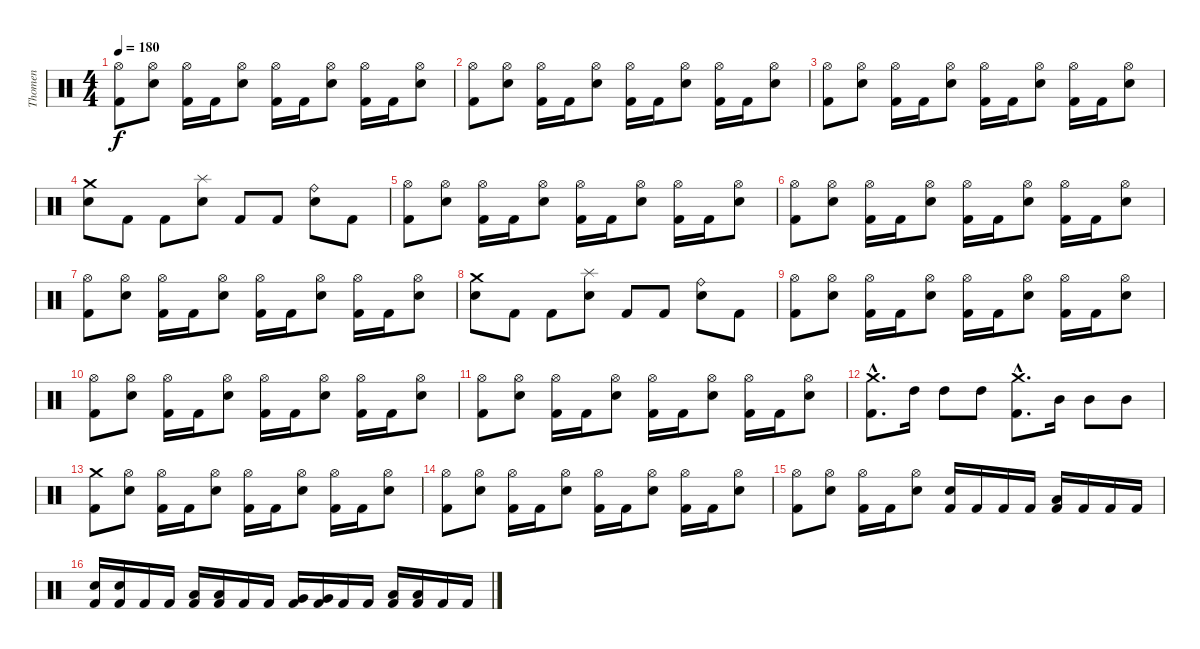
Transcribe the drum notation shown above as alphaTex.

\track ("Thomen" "Thomen") {instrument percussion}
\staff {score}
\articulation defaults
\ts (4 4)
\tempo 180
\clef neutral
\ks c
("Hi-Hat (open)" "Kick (hit) 2").8{dy f} ("Hi-Hat (open)" "Electric Snare (hit)").8 ("Hi-Hat (open)" "Kick (hit) 2").16 "Kick (hit) 2".16 ("Hi-Hat (open)" "Electric Snare (hit)").8 ("Hi-Hat (open)" "Kick (hit) 2").16 "Kick (hit) 2".16 ("Hi-Hat (open)" "Electric Snare (hit)").8 ("Hi-Hat (open)" "Kick (hit) 2").16 "Kick (hit) 2".16 ("Hi-Hat (open)" "Electric Snare (hit)").8 |
("Hi-Hat (open)" "Kick (hit) 2").8 ("Hi-Hat (open)" "Electric Snare (hit)").8 ("Hi-Hat (open)" "Kick (hit) 2").16 "Kick (hit) 2".16 ("Hi-Hat (open)" "Electric Snare (hit)").8 ("Hi-Hat (open)" "Kick (hit) 2").16 "Kick (hit) 2".16 ("Hi-Hat (open)" "Electric Snare (hit)").8 ("Hi-Hat (open)" "Kick (hit) 2").16 "Kick (hit) 2".16 ("Hi-Hat (open)" "Electric Snare (hit)").8 |
("Hi-Hat (open)" "Kick (hit) 2").8 ("Hi-Hat (open)" "Electric Snare (hit)").8 ("Hi-Hat (open)" "Kick (hit) 2").16 "Kick (hit) 2".16 ("Hi-Hat (open)" "Electric Snare (hit)").8 ("Hi-Hat (open)" "Kick (hit) 2").16 "Kick (hit) 2".16 ("Hi-Hat (open)" "Electric Snare (hit)").8 ("Hi-Hat (open)" "Kick (hit) 2").16 "Kick (hit) 2".16 ("Hi-Hat (open)" "Electric Snare (hit)").8 |
("Crash medium (hit)" "Electric Snare (hit)").8 "Kick (hit) 2".8 "Kick (hit) 2".8 ("Splash (hit)" "Electric Snare (hit)").8 "Kick (hit) 2".8 "Kick (hit) 2".8 ("Ride (bell)" "Electric Snare (hit)").8 "Kick (hit) 2".8 |
("Hi-Hat (open)" "Kick (hit) 2").8 ("Hi-Hat (open)" "Electric Snare (hit)").8 ("Hi-Hat (open)" "Kick (hit) 2").16 "Kick (hit) 2".16 ("Hi-Hat (open)" "Electric Snare (hit)").8 ("Hi-Hat (open)" "Kick (hit) 2").16 "Kick (hit) 2".16 ("Hi-Hat (open)" "Electric Snare (hit)").8 ("Hi-Hat (open)" "Kick (hit) 2").16 "Kick (hit) 2".16 ("Hi-Hat (open)" "Electric Snare (hit)").8 |
("Hi-Hat (open)" "Kick (hit) 2").8 ("Hi-Hat (open)" "Electric Snare (hit)").8 ("Hi-Hat (open)" "Kick (hit) 2").16 "Kick (hit) 2".16 ("Hi-Hat (open)" "Electric Snare (hit)").8 ("Hi-Hat (open)" "Kick (hit) 2").16 "Kick (hit) 2".16 ("Hi-Hat (open)" "Electric Snare (hit)").8 ("Hi-Hat (open)" "Kick (hit) 2").16 "Kick (hit) 2".16 ("Hi-Hat (open)" "Electric Snare (hit)").8 |
("Hi-Hat (open)" "Kick (hit) 2").8 ("Hi-Hat (open)" "Electric Snare (hit)").8 ("Hi-Hat (open)" "Kick (hit) 2").16 "Kick (hit) 2".16 ("Hi-Hat (open)" "Electric Snare (hit)").8 ("Hi-Hat (open)" "Kick (hit) 2").16 "Kick (hit) 2".16 ("Hi-Hat (open)" "Electric Snare (hit)").8 ("Hi-Hat (open)" "Kick (hit) 2").16 "Kick (hit) 2".16 ("Hi-Hat (open)" "Electric Snare (hit)").8 |
("Crash medium (hit)" "Electric Snare (hit)").8 "Kick (hit) 2".8 "Kick (hit) 2".8 ("Splash (hit)" "Electric Snare (hit)").8 "Kick (hit) 2".8 "Kick (hit) 2".8 ("Ride (bell)" "Electric Snare (hit)").8 "Kick (hit) 2".8 |
("Hi-Hat (open)" "Kick (hit) 2").8 ("Hi-Hat (open)" "Electric Snare (hit)").8 ("Hi-Hat (open)" "Kick (hit) 2").16 "Kick (hit) 2".16 ("Hi-Hat (open)" "Electric Snare (hit)").8 ("Hi-Hat (open)" "Kick (hit) 2").16 "Kick (hit) 2".16 ("Hi-Hat (open)" "Electric Snare (hit)").8 ("Hi-Hat (open)" "Kick (hit) 2").16 "Kick (hit) 2".16 ("Hi-Hat (open)" "Electric Snare (hit)").8 |
("Hi-Hat (open)" "Kick (hit) 2").8 ("Hi-Hat (open)" "Electric Snare (hit)").8 ("Hi-Hat (open)" "Kick (hit) 2").16 "Kick (hit) 2".16 ("Hi-Hat (open)" "Electric Snare (hit)").8 ("Hi-Hat (open)" "Kick (hit) 2").16 "Kick (hit) 2".16 ("Hi-Hat (open)" "Electric Snare (hit)").8 ("Hi-Hat (open)" "Kick (hit) 2").16 "Kick (hit) 2".16 ("Hi-Hat (open)" "Electric Snare (hit)").8 |
("Hi-Hat (open)" "Kick (hit) 2").8 ("Hi-Hat (open)" "Electric Snare (hit)").8 ("Hi-Hat (open)" "Kick (hit) 2").16 "Kick (hit) 2".16 ("Hi-Hat (open)" "Electric Snare (hit)").8 ("Hi-Hat (open)" "Kick (hit) 2").16 "Kick (hit) 2".16 ("Hi-Hat (open)" "Electric Snare (hit)").8 ("Hi-Hat (open)" "Kick (hit) 2").16 "Kick (hit) 2".16 ("Hi-Hat (open)" "Electric Snare (hit)").8 |
("Crash medium (hit)"{hac} "Kick (hit) 2"{hac}).8{d} "High Tom (hit)".16 "High Tom (hit)".8 "High Tom (hit)".8 ("Crash medium (hit)"{hac} "Kick (hit) 2"{hac}).8{d} "Mid Tom (hit)".16 "Mid Tom (hit)".8 "Mid Tom (hit)".8 |
("Crash medium (hit)" "Kick (hit) 2").8 ("Hi-Hat (open)" "Electric Snare (hit)").8 ("Hi-Hat (open)" "Kick (hit) 2").16 "Kick (hit) 2".16 ("Hi-Hat (open)" "Electric Snare (hit)").8 ("Hi-Hat (open)" "Kick (hit) 2").16 "Kick (hit) 2".16 ("Hi-Hat (open)" "Electric Snare (hit)").8 ("Hi-Hat (open)" "Kick (hit) 2").16 "Kick (hit) 2".16 ("Hi-Hat (open)" "Electric Snare (hit)").8 |
("Hi-Hat (open)" "Kick (hit) 2").8 ("Hi-Hat (open)" "Electric Snare (hit)").8 ("Hi-Hat (open)" "Kick (hit) 2").16 "Kick (hit) 2".16 ("Hi-Hat (open)" "Electric Snare (hit)").8 ("Hi-Hat (open)" "Kick (hit) 2").16 "Kick (hit) 2".16 ("Hi-Hat (open)" "Electric Snare (hit)").8 ("Hi-Hat (open)" "Kick (hit) 2").16 "Kick (hit) 2".16 ("Hi-Hat (open)" "Electric Snare (hit)").8 |
("Hi-Hat (open)" "Kick (hit) 2").8 ("Hi-Hat (open)" "Electric Snare (hit)").8 ("Hi-Hat (open)" "Kick (hit) 2").16 "Kick (hit) 2".16 ("Hi-Hat (open)" "Electric Snare (hit)").8 ("Electric Snare (hit)" "Kick (hit) 2").16 "Kick (hit) 2".16 "Kick (hit) 2".16 "Kick (hit) 2".16 ("Low Tom (hit)" "Kick (hit) 2").16 "Kick (hit) 2".16 "Kick (hit) 2".16 "Kick (hit) 2".16 |
("Electric Snare (hit)" "Kick (hit) 2").16 ("Electric Snare (hit)" "Kick (hit) 2").16 "Kick (hit) 2".16 "Kick (hit) 2".16 ("Low Tom (hit)" "Kick (hit) 2").16 ("Low Tom (hit)" "Kick (hit) 2").16 "Kick (hit) 2".16 "Kick (hit) 2".16 ("Very Low Tom (hit)" "Kick (hit) 2").16 ("Very Low Tom (hit)" "Kick (hit) 2").16 "Kick (hit) 2".16 "Kick (hit) 2".16 ("Low Floor Tom (hit)" "Kick (hit) 2").16 ("Low Floor Tom (hit)" "Kick (hit) 2").16 "Kick (hit) 2".16 "Kick (hit) 2".16
